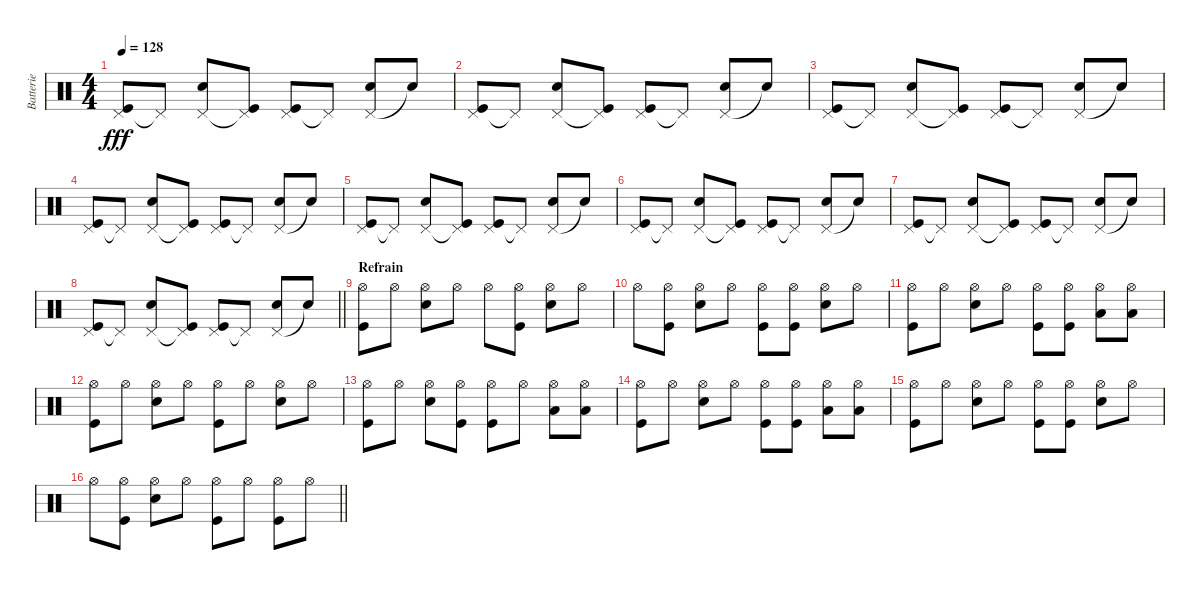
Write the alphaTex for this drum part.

\track ("Batterie" "Batterie") {instrument percussion}
\staff {score}
\articulation defaults
\ts (4 4)
\tempo 128
\clef neutral
\ks c
("Pedal Hi-Hat (hit)" "Kick (hit)").8{dy fff} "Pedal Hi-Hat (hit)"{t}.8 ("Pedal Hi-Hat (hit)" "Electric Snare (hit)").8 ("Pedal Hi-Hat (hit)"{t} "Kick (hit)").8 ("Pedal Hi-Hat (hit)" "Kick (hit)").8 "Pedal Hi-Hat (hit)"{t}.8 ("Pedal Hi-Hat (hit)" "Electric Snare (hit)").8 "Snare (hit)"{t}.8 |
("Pedal Hi-Hat (hit)" "Kick (hit)").8 "Pedal Hi-Hat (hit)"{t}.8 ("Pedal Hi-Hat (hit)" "Electric Snare (hit)").8 ("Pedal Hi-Hat (hit)"{t} "Kick (hit)").8 ("Pedal Hi-Hat (hit)" "Kick (hit)").8 "Pedal Hi-Hat (hit)"{t}.8 ("Pedal Hi-Hat (hit)" "Electric Snare (hit)").8 "Snare (hit)"{t}.8 |
("Pedal Hi-Hat (hit)" "Kick (hit)").8 "Pedal Hi-Hat (hit)"{t}.8 ("Pedal Hi-Hat (hit)" "Electric Snare (hit)").8 ("Pedal Hi-Hat (hit)"{t} "Kick (hit)").8 ("Pedal Hi-Hat (hit)" "Kick (hit)").8 "Pedal Hi-Hat (hit)"{t}.8 ("Pedal Hi-Hat (hit)" "Electric Snare (hit)").8 "Snare (hit)"{t}.8 |
("Pedal Hi-Hat (hit)" "Kick (hit)").8 "Pedal Hi-Hat (hit)"{t}.8 ("Pedal Hi-Hat (hit)" "Electric Snare (hit)").8 ("Pedal Hi-Hat (hit)"{t} "Kick (hit)").8 ("Pedal Hi-Hat (hit)" "Kick (hit)").8 "Pedal Hi-Hat (hit)"{t}.8 ("Pedal Hi-Hat (hit)" "Electric Snare (hit)").8 "Snare (hit)"{t}.8 |
("Pedal Hi-Hat (hit)" "Kick (hit)").8 "Pedal Hi-Hat (hit)"{t}.8 ("Pedal Hi-Hat (hit)" "Electric Snare (hit)").8 ("Pedal Hi-Hat (hit)"{t} "Kick (hit)").8 ("Pedal Hi-Hat (hit)" "Kick (hit)").8 "Pedal Hi-Hat (hit)"{t}.8 ("Pedal Hi-Hat (hit)" "Electric Snare (hit)").8 "Snare (hit)"{t}.8 |
("Pedal Hi-Hat (hit)" "Kick (hit)").8 "Pedal Hi-Hat (hit)"{t}.8 ("Pedal Hi-Hat (hit)" "Electric Snare (hit)").8 ("Pedal Hi-Hat (hit)"{t} "Kick (hit)").8 ("Pedal Hi-Hat (hit)" "Kick (hit)").8 "Pedal Hi-Hat (hit)"{t}.8 ("Pedal Hi-Hat (hit)" "Electric Snare (hit)").8 "Snare (hit)"{t}.8 |
("Pedal Hi-Hat (hit)" "Kick (hit)").8 "Pedal Hi-Hat (hit)"{t}.8 ("Pedal Hi-Hat (hit)" "Electric Snare (hit)").8 ("Pedal Hi-Hat (hit)"{t} "Kick (hit)").8 ("Pedal Hi-Hat (hit)" "Kick (hit)").8 "Pedal Hi-Hat (hit)"{t}.8 ("Pedal Hi-Hat (hit)" "Electric Snare (hit)").8 "Snare (hit)"{t}.8 |
\barLineRight lightlight
("Pedal Hi-Hat (hit)" "Kick (hit)").8 "Pedal Hi-Hat (hit)"{t}.8 ("Pedal Hi-Hat (hit)" "Electric Snare (hit)").8 ("Pedal Hi-Hat (hit)"{t} "Kick (hit)").8 ("Pedal Hi-Hat (hit)" "Kick (hit)").8 "Pedal Hi-Hat (hit)"{t}.8 ("Pedal Hi-Hat (hit)" "Electric Snare (hit)").8 "Snare (hit)"{t}.8 |
\section ("" "Refrain")
("Hi-Hat (open)" "Kick (hit)").8 "Hi-Hat (open)".8 ("Hi-Hat (open)" "Electric Snare (hit)").8 "Hi-Hat (open)".8 "Hi-Hat (open)".8 ("Hi-Hat (open)" "Kick (hit)").8 ("Hi-Hat (open)" "Electric Snare (hit)").8 "Hi-Hat (open)".8 |
"Hi-Hat (open)".8 ("Hi-Hat (open)" "Kick (hit)").8 ("Hi-Hat (open)" "Electric Snare (hit)").8 "Hi-Hat (open)".8 ("Hi-Hat (open)" "Kick (hit)").8 ("Hi-Hat (open)" "Kick (hit)").8 ("Hi-Hat (open)" "Electric Snare (hit)").8 "Hi-Hat (open)".8 |
("Hi-Hat (open)" "Kick (hit)").8 "Hi-Hat (open)".8 ("Hi-Hat (open)" "Electric Snare (hit)").8 "Hi-Hat (open)".8 ("Hi-Hat (open)" "Kick (hit)").8 ("Hi-Hat (open)" "Kick (hit)").8 ("Hi-Hat (open)" "Low Tom (hit)").8 ("Hi-Hat (open)" "Low Tom (hit)").8 |
("Hi-Hat (open)" "Kick (hit)").8 "Hi-Hat (open)".8 ("Hi-Hat (open)" "Electric Snare (hit)").8 "Hi-Hat (open)".8 ("Hi-Hat (open)" "Kick (hit)").8 "Hi-Hat (open)".8 ("Hi-Hat (open)" "Electric Snare (hit)").8 "Hi-Hat (open)".8 |
("Hi-Hat (open)" "Kick (hit)").8 "Hi-Hat (open)".8 ("Hi-Hat (open)" "Electric Snare (hit)").8 ("Hi-Hat (open)" "Kick (hit)").8 ("Hi-Hat (open)" "Kick (hit)").8 "Hi-Hat (open)".8 ("Hi-Hat (open)" "Low Tom (hit)").8 ("Hi-Hat (open)" "Low Tom (hit)").8 |
("Hi-Hat (open)" "Kick (hit)").8 "Hi-Hat (open)".8 ("Hi-Hat (open)" "Electric Snare (hit)").8 "Hi-Hat (open)".8 ("Hi-Hat (open)" "Kick (hit)").8 ("Hi-Hat (open)" "Kick (hit)").8 ("Hi-Hat (open)" "Low Tom (hit)").8 ("Hi-Hat (open)" "Low Tom (hit)").8 |
("Hi-Hat (open)" "Kick (hit)").8 "Hi-Hat (open)".8 ("Hi-Hat (open)" "Electric Snare (hit)").8 "Hi-Hat (open)".8 ("Hi-Hat (open)" "Kick (hit)").8 ("Hi-Hat (open)" "Kick (hit)").8 ("Hi-Hat (open)" "Electric Snare (hit)").8 "Hi-Hat (open)".8 |
\barLineRight lightlight "Hi-Hat (open)".8
("Hi-Hat (open)" "Kick (hit)").8 ("Hi-Hat (open)" "Electric Snare (hit)").8 "Hi-Hat (open)".8 ("Hi-Hat (open)" "Kick (hit)").8 "Hi-Hat (open)".8 ("Hi-Hat (open)" "Kick (hit)").8 "Hi-Hat (open)".8
